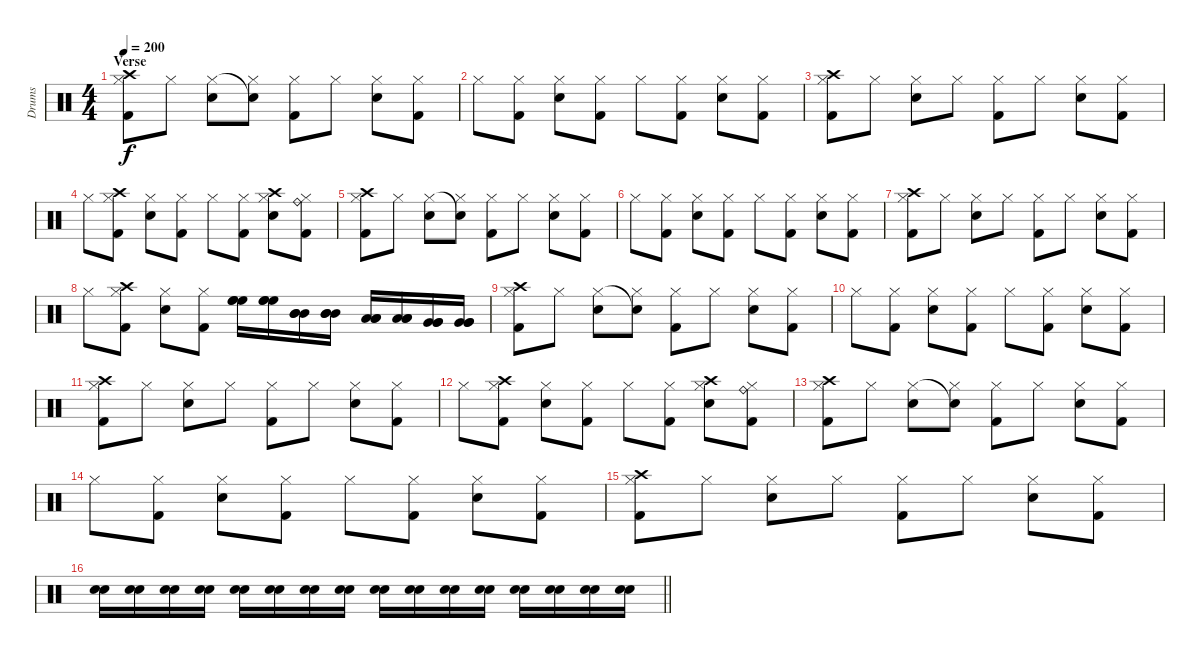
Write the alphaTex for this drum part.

\track ("Drums" "Drums") {instrument percussion}
\staff {score}
\articulation defaults
\ts (4 4)
\section ("" "Verse")
\tempo 200
\clef neutral
\ks c
("Crash high (hit)" "Hi-Hat (closed)" "Kick (hit) 2").8{dy f} "Hi-Hat (closed)".8 ("Hi-Hat (closed)" "Electric Snare (hit)").8 ("Snare (hit)"{t} "Hi-Hat (closed)").8 ("Hi-Hat (closed)" "Kick (hit) 2").8 "Hi-Hat (closed)".8 ("Hi-Hat (closed)" "Electric Snare (hit)").8 ("Hi-Hat (closed)" "Kick (hit) 2").8 |
"Hi-Hat (closed)".8 ("Hi-Hat (closed)" "Kick (hit) 2").8 ("Hi-Hat (closed)" "Electric Snare (hit)").8 ("Hi-Hat (closed)" "Kick (hit) 2").8 "Hi-Hat (closed)".8 ("Hi-Hat (closed)" "Kick (hit) 2").8 ("Hi-Hat (closed)" "Electric Snare (hit)").8 ("Hi-Hat (closed)" "Kick (hit) 2").8 |
("Crash high (hit)" "Hi-Hat (closed)" "Kick (hit) 2").8 "Hi-Hat (closed)".8 ("Hi-Hat (closed)" "Electric Snare (hit)").8 "Hi-Hat (closed)".8 ("Hi-Hat (closed)" "Kick (hit) 2").8 "Hi-Hat (closed)".8 ("Hi-Hat (closed)" "Electric Snare (hit)").8 ("Hi-Hat (closed)" "Kick (hit) 2").8 |
"Hi-Hat (closed)".8 ("Crash high (hit)" "Hi-Hat (closed)" "Kick (hit) 2").8 ("Hi-Hat (closed)" "Electric Snare (hit)").8 ("Hi-Hat (closed)" "Kick (hit) 2").8 "Hi-Hat (closed)".8 ("Hi-Hat (closed)" "Kick (hit) 2").8 ("Crash high (hit)" "Hi-Hat (closed)" "Electric Snare (hit)").8 ("Ride (bell)" "Hi-Hat (closed)" "Kick (hit) 2").8 |
("Crash high (hit)" "Hi-Hat (closed)" "Kick (hit) 2").8 "Hi-Hat (closed)".8 ("Hi-Hat (closed)" "Electric Snare (hit)").8 ("Snare (hit)"{t} "Hi-Hat (closed)").8 ("Hi-Hat (closed)" "Kick (hit) 2").8 "Hi-Hat (closed)".8 ("Hi-Hat (closed)" "Electric Snare (hit)").8 ("Hi-Hat (closed)" "Kick (hit) 2").8 |
"Hi-Hat (closed)".8 ("Hi-Hat (closed)" "Kick (hit) 2").8 ("Hi-Hat (closed)" "Electric Snare (hit)").8 ("Hi-Hat (closed)" "Kick (hit) 2").8 "Hi-Hat (closed)".8 ("Hi-Hat (closed)" "Kick (hit) 2").8 ("Hi-Hat (closed)" "Electric Snare (hit)").8 ("Hi-Hat (closed)" "Kick (hit) 2").8 |
("Crash high (hit)" "Hi-Hat (closed)" "Kick (hit) 2").8 "Hi-Hat (closed)".8 ("Hi-Hat (closed)" "Electric Snare (hit)").8 "Hi-Hat (closed)".8 ("Hi-Hat (closed)" "Kick (hit) 2").8 "Hi-Hat (closed)".8 ("Hi-Hat (closed)" "Electric Snare (hit)").8 ("Hi-Hat (closed)" "Kick (hit) 2").8 |
"Hi-Hat (closed)".8 ("Crash high (hit)" "Hi-Hat (closed)" "Kick (hit) 2").8 ("Hi-Hat (closed)" "Electric Snare (hit)").8 ("Hi-Hat (closed)" "Kick (hit) 2").8 ("High Floor Tom (hit)" "High Floor Tom (hit)" "High Floor Tom (hit)").16 ("High Floor Tom (hit)" "High Floor Tom (hit)" "High Floor Tom (hit)").16 ("Mid Tom (hit)" "Mid Tom (hit)" "Mid Tom (hit)").16 ("Mid Tom (hit)" "Mid Tom (hit)" "Mid Tom (hit)").16 ("Low Tom (hit)" "Low Tom (hit)" "Low Tom (hit)").16 ("Low Tom (hit)" "Low Tom (hit)" "Low Tom (hit)").16 ("Very Low Tom (hit)" "Very Low Tom (hit)" "Very Low Tom (hit)").16 ("Very Low Tom (hit)" "Very Low Tom (hit)" "Very Low Tom (hit)").16 |
("Crash high (hit)" "Hi-Hat (closed)" "Kick (hit) 2").8 "Hi-Hat (closed)".8 ("Hi-Hat (closed)" "Electric Snare (hit)").8 ("Snare (hit)"{t} "Hi-Hat (closed)").8 ("Hi-Hat (closed)" "Kick (hit) 2").8 "Hi-Hat (closed)".8 ("Hi-Hat (closed)" "Electric Snare (hit)").8 ("Hi-Hat (closed)" "Kick (hit) 2").8 |
"Hi-Hat (closed)".8 ("Hi-Hat (closed)" "Kick (hit) 2").8 ("Hi-Hat (closed)" "Electric Snare (hit)").8 ("Hi-Hat (closed)" "Kick (hit) 2").8 "Hi-Hat (closed)".8 ("Hi-Hat (closed)" "Kick (hit) 2").8 ("Hi-Hat (closed)" "Electric Snare (hit)").8 ("Hi-Hat (closed)" "Kick (hit) 2").8 |
("Crash high (hit)" "Hi-Hat (closed)" "Kick (hit) 2").8 "Hi-Hat (closed)".8 ("Hi-Hat (closed)" "Electric Snare (hit)").8 "Hi-Hat (closed)".8 ("Hi-Hat (closed)" "Kick (hit) 2").8 "Hi-Hat (closed)".8 ("Hi-Hat (closed)" "Electric Snare (hit)").8 ("Hi-Hat (closed)" "Kick (hit) 2").8 |
"Hi-Hat (closed)".8 ("Crash high (hit)" "Hi-Hat (closed)" "Kick (hit) 2").8 ("Hi-Hat (closed)" "Electric Snare (hit)").8 ("Hi-Hat (closed)" "Kick (hit) 2").8 "Hi-Hat (closed)".8 ("Hi-Hat (closed)" "Kick (hit) 2").8 ("Crash high (hit)" "Hi-Hat (closed)" "Electric Snare (hit)").8 ("Ride (bell)" "Hi-Hat (closed)" "Kick (hit) 2").8 |
("Crash high (hit)" "Hi-Hat (closed)" "Kick (hit) 2").8 "Hi-Hat (closed)".8 ("Hi-Hat (closed)" "Electric Snare (hit)").8 ("Snare (hit)"{t} "Hi-Hat (closed)").8 ("Hi-Hat (closed)" "Kick (hit) 2").8 "Hi-Hat (closed)".8 ("Hi-Hat (closed)" "Electric Snare (hit)").8 ("Hi-Hat (closed)" "Kick (hit) 2").8 |
"Hi-Hat (closed)".8 ("Hi-Hat (closed)" "Kick (hit) 2").8 ("Hi-Hat (closed)" "Electric Snare (hit)").8 ("Hi-Hat (closed)" "Kick (hit) 2").8 "Hi-Hat (closed)".8 ("Hi-Hat (closed)" "Kick (hit) 2").8 ("Hi-Hat (closed)" "Electric Snare (hit)").8 ("Hi-Hat (closed)" "Kick (hit) 2").8 |
("Crash high (hit)" "Hi-Hat (closed)" "Kick (hit) 2").8 "Hi-Hat (closed)".8 ("Hi-Hat (closed)" "Electric Snare (hit)").8 "Hi-Hat (closed)".8 ("Hi-Hat (closed)" "Kick (hit) 2").8 "Hi-Hat (closed)".8 ("Hi-Hat (closed)" "Electric Snare (hit)").8 ("Hi-Hat (closed)" "Kick (hit) 2").8 |
\barLineRight lightlight
("Electric Snare (hit)" "Snare (hit) 2").16 ("Electric Snare (hit)" "Snare (hit) 2").16 ("Electric Snare (hit)" "Snare (hit) 2").16 ("Electric Snare (hit)" "Snare (hit) 2").16 ("Electric Snare (hit)" "Snare (hit) 2").16 ("Electric Snare (hit)" "Snare (hit) 2").16 ("Electric Snare (hit)" "Snare (hit) 2").16 ("Electric Snare (hit)" "Snare (hit) 2").16 ("Electric Snare (hit)" "Snare (hit) 2").16 ("Electric Snare (hit)" "Snare (hit) 2").16 ("Electric Snare (hit)" "Snare (hit) 2").16 ("Electric Snare (hit)" "Snare (hit) 2").16 ("Electric Snare (hit)" "Snare (hit) 2").16 ("Electric Snare (hit)" "Snare (hit) 2").16 ("Electric Snare (hit)" "Snare (hit) 2").16 ("Electric Snare (hit)" "Snare (hit) 2").16
